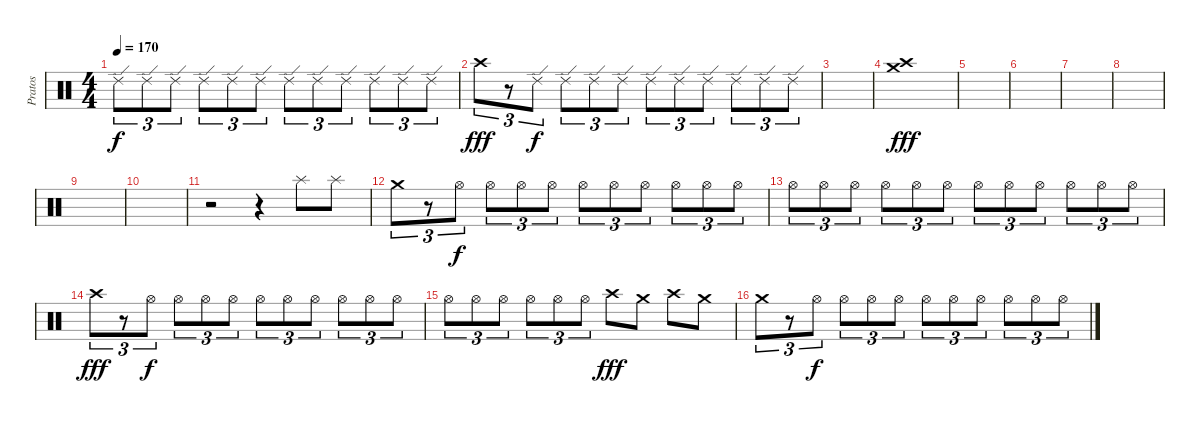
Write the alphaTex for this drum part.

\track ("Pratos" "Pratos") {instrument percussion}
\staff {score}
\articulation defaults
\ts (4 4)
\tempo 170
\clef neutral
\ks c "Ride (edge) 2".8{tu (3 2) dy f} "Ride (edge) 2".8{tu (3 2)} "Ride (edge) 2".8{tu (3 2)} "Ride (edge) 2".8{tu (3 2)} "Ride (edge) 2".8{tu (3 2)} "Ride (edge) 2".8{tu (3 2)} "Ride (edge) 2".8{tu (3 2)} "Ride (edge) 2".8{tu (3 2)} "Ride (edge) 2".8{tu (3 2)} "Ride (edge) 2".8{tu (3 2)} "Ride (edge) 2".8{tu (3 2)} "Ride (edge) 2".8{tu (3 2)}
|
"Crash high (hit)".8{tu (3 2) dy fff} r.8{tu (3 2)} "Ride (edge) 2".8{tu (3 2) dy f} "Ride (edge) 2".8{tu (3 2)} "Ride (edge) 2".8{tu (3 2)} "Ride (edge) 2".8{tu (3 2)} "Ride (edge) 2".8{tu (3 2)} "Ride (edge) 2".8{tu (3 2)} "Ride (edge) 2".8{tu (3 2)} "Ride (edge) 2".8{tu (3 2)} "Ride (edge) 2".8{tu (3 2)} "Ride (edge) 2".8{tu (3 2)} |
|
("Crash medium (hit)" "Crash high (hit)").1{dy fff} |
|
|
|
|
|
|
r.2 r.4 "Splash (hit)".8 "Splash (hit)".8 |
"Crash medium (hit)".8{tu (3 2)} r.8{tu (3 2)} "Hi-Hat (open)".8{tu (3 2) dy f} "Hi-Hat (open)".8{tu (3 2)} "Hi-Hat (open)".8{tu (3 2)} "Hi-Hat (open)".8{tu (3 2)} "Hi-Hat (open)".8{tu (3 2)} "Hi-Hat (open)".8{tu (3 2)} "Hi-Hat (open)".8{tu (3 2)} "Hi-Hat (open)".8{tu (3 2)} "Hi-Hat (open)".8{tu (3 2)} "Hi-Hat (open)".8{tu (3 2)} |
"Hi-Hat (open)".8{tu (3 2)} "Hi-Hat (open)".8{tu (3 2)} "Hi-Hat (open)".8{tu (3 2)} "Hi-Hat (open)".8{tu (3 2)} "Hi-Hat (open)".8{tu (3 2)} "Hi-Hat (open)".8{tu (3 2)} "Hi-Hat (open)".8{tu (3 2)} "Hi-Hat (open)".8{tu (3 2)} "Hi-Hat (open)".8{tu (3 2)} "Hi-Hat (open)".8{tu (3 2)} "Hi-Hat (open)".8{tu (3 2)} "Hi-Hat (open)".8{tu (3 2)} |
"Crash high (hit)".8{tu (3 2) dy fff} r.8{tu (3 2)} "Hi-Hat (open)".8{tu (3 2) dy f} "Hi-Hat (open)".8{tu (3 2)} "Hi-Hat (open)".8{tu (3 2)} "Hi-Hat (open)".8{tu (3 2)} "Hi-Hat (open)".8{tu (3 2)} "Hi-Hat (open)".8{tu (3 2)} "Hi-Hat (open)".8{tu (3 2)} "Hi-Hat (open)".8{tu (3 2)} "Hi-Hat (open)".8{tu (3 2)} "Hi-Hat (open)".8{tu (3 2)} |
"Hi-Hat (open)".8{tu (3 2)} "Hi-Hat (open)".8{tu (3 2)} "Hi-Hat (open)".8{tu (3 2)} "Hi-Hat (open)".8{tu (3 2)} "Hi-Hat (open)".8{tu (3 2)} "Hi-Hat (open)".8{tu (3 2)} "Crash high (hit)".8{dy fff} "Crash medium (hit)".8 "Crash high (hit)".8 "Crash medium (hit)".8 |
"Crash medium (hit)".8{tu (3 2)} r.8{tu (3 2)} "Hi-Hat (open)".8{tu (3 2) dy f} "Hi-Hat (open)".8{tu (3 2)} "Hi-Hat (open)".8{tu (3 2)} "Hi-Hat (open)".8{tu (3 2)} "Hi-Hat (open)".8{tu (3 2)} "Hi-Hat (open)".8{tu (3 2)} "Hi-Hat (open)".8{tu (3 2)} "Hi-Hat (open)".8{tu (3 2)} "Hi-Hat (open)".8{tu (3 2)} "Hi-Hat (open)".8{tu (3 2)}
